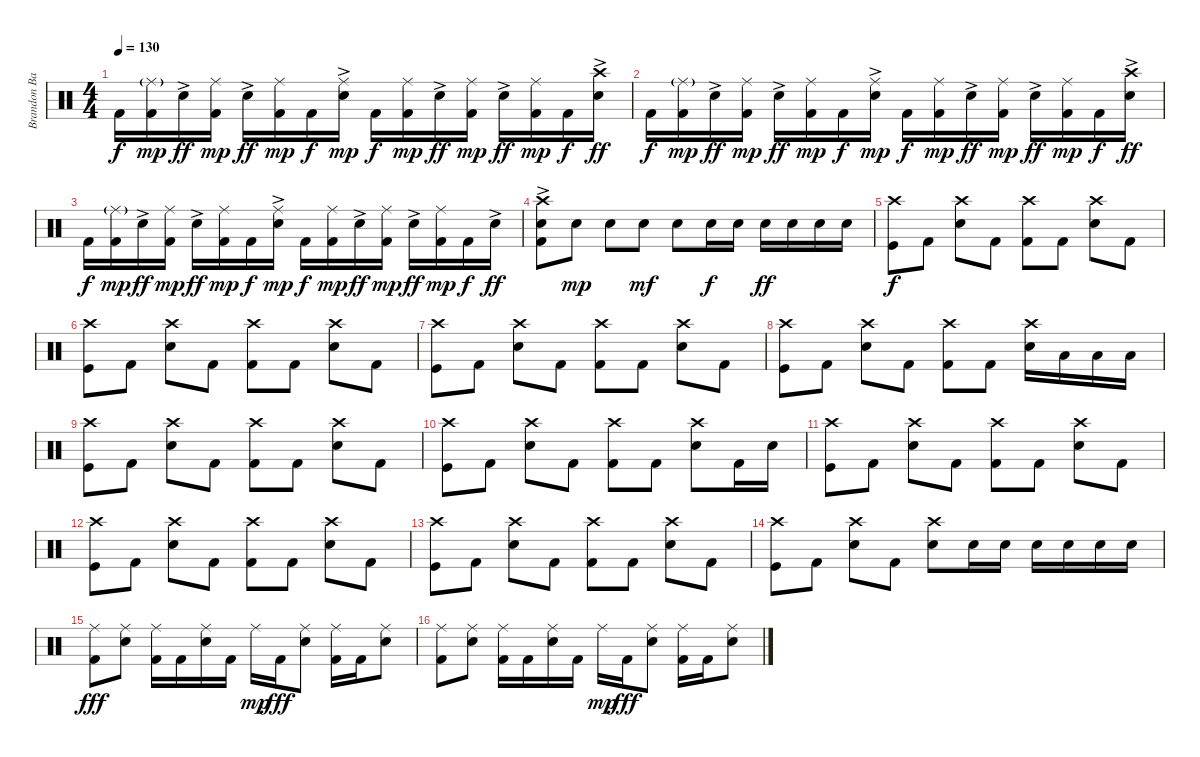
\track ("Brandon Barnes - Drums" "Brandon Ba") {instrument percussion}
\staff {score}
\articulation defaults
\ts (4 4)
\tempo 130
\clef neutral
\ks c "Kick (hit) 2".16{dy f}
("Kick (hit) 2" "Ride (middle)"{g}).16{dy mp} "Snare (hit) 2"{ac}.16{dy ff} ("Kick (hit) 2" "Ride (middle)").16{dy mp} "Snare (hit) 2"{ac}.16{dy ff} ("Kick (hit) 2" "Ride (middle)").16{dy mp} "Kick (hit) 2".16{dy f} ("Snare (hit) 2"{ac} "Ride (middle)").16{dy mp} "Kick (hit) 2".16{dy f} ("Kick (hit) 2" "Ride (middle)").16{dy mp} "Snare (hit) 2"{ac}.16{dy ff} ("Kick (hit) 2" "Ride (middle)").16{dy mp} "Snare (hit) 2"{ac}.16{dy ff} ("Kick (hit) 2" "Ride (middle)").16{dy mp} "Kick (hit) 2".16{dy f} ("Crash high (hit)"{ac} "Snare (hit) 2"{ac}).16{dy ff} |
"Kick (hit) 2".16{dy f} ("Kick (hit) 2" "Ride (middle)"{g}).16{dy mp} "Snare (hit) 2"{ac}.16{dy ff} ("Kick (hit) 2" "Ride (middle)").16{dy mp} "Snare (hit) 2"{ac}.16{dy ff} ("Kick (hit) 2" "Ride (middle)").16{dy mp} "Kick (hit) 2".16{dy f} ("Snare (hit) 2"{ac} "Ride (middle)").16{dy mp} "Kick (hit) 2".16{dy f} ("Kick (hit) 2" "Ride (middle)").16{dy mp} "Snare (hit) 2"{ac}.16{dy ff} ("Kick (hit) 2" "Ride (middle)").16{dy mp} "Snare (hit) 2"{ac}.16{dy ff} ("Kick (hit) 2" "Ride (middle)").16{dy mp} "Kick (hit) 2".16{dy f} ("Crash high (hit)"{ac} "Snare (hit) 2"{ac}).16{dy ff} |
"Kick (hit) 2".16{dy f} ("Kick (hit) 2" "Ride (middle)"{g}).16{dy mp} "Snare (hit) 2"{ac}.16{dy ff} ("Kick (hit) 2" "Ride (middle)").16{dy mp} "Snare (hit) 2"{ac}.16{dy ff} ("Kick (hit) 2" "Ride (middle)").16{dy mp} "Kick (hit) 2".16{dy f} ("Snare (hit) 2"{ac} "Ride (middle)").16{dy mp} "Kick (hit) 2".16{dy f} ("Kick (hit) 2" "Ride (middle)").16{dy mp} "Snare (hit) 2"{ac}.16{dy ff} ("Kick (hit) 2" "Ride (middle)").16{dy mp} "Snare (hit) 2"{ac}.16{dy ff} ("Kick (hit) 2" "Ride (middle)").16{dy mp} "Kick (hit) 2".16{dy f} "Snare (hit) 2"{ac}.16{dy ff} |
("Snare (hit) 2" "Kick (hit) 2" "Crash high (hit)"{ac}).8 "Snare (hit) 2".8{dy mp} "Snare (hit) 2".8 "Snare (hit) 2".8{dy mf} "Snare (hit) 2".8 "Snare (hit) 2".16{dy f} "Snare (hit) 2".16 "Snare (hit) 2".16{dy ff} "Snare (hit) 2".16 "Snare (hit) 2".16 "Snare (hit) 2".16 |
("Crash high (hit)" "Kick (hit)").8{dy f} "Kick (hit) 2".8 ("Snare (hit) 2" "Crash high (hit)").8 "Kick (hit) 2".8 ("Kick (hit) 2" "Crash high (hit)").8 "Kick (hit) 2".8 ("Electric Snare (hit)" "Crash high (hit)").8 "Kick (hit) 2".8 |
("Crash high (hit)" "Kick (hit)").8 "Kick (hit) 2".8 ("Snare (hit) 2" "Crash high (hit)").8 "Kick (hit) 2".8 ("Kick (hit) 2" "Crash high (hit)").8 "Kick (hit) 2".8 ("Electric Snare (hit)" "Crash high (hit)").8 "Kick (hit) 2".8 |
("Crash high (hit)" "Kick (hit)").8 "Kick (hit) 2".8 ("Snare (hit) 2" "Crash high (hit)").8 "Kick (hit) 2".8 ("Kick (hit) 2" "Crash high (hit)").8 "Kick (hit) 2".8 ("Electric Snare (hit)" "Crash high (hit)").8 "Kick (hit) 2".8 |
("Crash high (hit)" "Kick (hit)").8 "Kick (hit) 2".8 ("Snare (hit) 2" "Crash high (hit)").8 "Kick (hit) 2".8 ("Kick (hit) 2" "Crash high (hit)").8 "Kick (hit) 2".8 ("Electric Snare (hit)" "Crash high (hit)").16 "Low Floor Tom (hit)".16 "Low Floor Tom (hit)".16 "Low Floor Tom (hit)".16 |
("Crash high (hit)" "Kick (hit)").8 "Kick (hit) 2".8 ("Snare (hit) 2" "Crash high (hit)").8 "Kick (hit) 2".8 ("Kick (hit) 2" "Crash high (hit)").8 "Kick (hit) 2".8 ("Electric Snare (hit)" "Crash high (hit)").8 "Kick (hit) 2".8 |
("Crash high (hit)" "Kick (hit)").8 "Kick (hit) 2".8 ("Snare (hit) 2" "Crash high (hit)").8 "Kick (hit) 2".8 ("Kick (hit) 2" "Crash high (hit)").8 "Kick (hit) 2".8 ("Electric Snare (hit)" "Crash high (hit)").8 "Kick (hit) 2".16 "Snare (hit) 2".16 |
("Crash high (hit)" "Kick (hit)").8 "Kick (hit) 2".8 ("Snare (hit) 2" "Crash high (hit)").8 "Kick (hit) 2".8 ("Kick (hit) 2" "Crash high (hit)").8 "Kick (hit) 2".8 ("Electric Snare (hit)" "Crash high (hit)").8 "Kick (hit) 2".8 |
("Crash high (hit)" "Kick (hit)").8 "Kick (hit) 2".8 ("Snare (hit) 2" "Crash high (hit)").8 "Kick (hit) 2".8 ("Kick (hit) 2" "Crash high (hit)").8 "Kick (hit) 2".8 ("Electric Snare (hit)" "Crash high (hit)").8 "Kick (hit) 2".8 |
("Crash high (hit)" "Kick (hit)").8 "Kick (hit) 2".8 ("Snare (hit) 2" "Crash high (hit)").8 "Kick (hit) 2".8 ("Kick (hit) 2" "Crash high (hit)").8 "Kick (hit) 2".8 ("Electric Snare (hit)" "Crash high (hit)").8 "Kick (hit) 2".8 |
("Crash high (hit)" "Kick (hit)").8 "Kick (hit) 2".8 ("Snare (hit) 2" "Crash high (hit)").8 "Kick (hit) 2".8 ("Snare (hit) 2" "Crash high (hit)").8 "Snare (hit) 2".16 "Snare (hit) 2".16 "Snare (hit) 2".16 "Snare (hit) 2".16 "Snare (hit) 2".16 "Snare (hit) 2".16 |
("Ride (middle)" "Kick (hit) 2").8{dy fff} ("Ride (middle)" "Snare (hit) 2").8 ("Ride (middle)" "Kick (hit) 2").16 "Kick (hit) 2".16 ("Ride (middle)" "Snare (hit) 2").16 "Kick (hit) 2".16 "Ride (middle)".16{dy mp} "Kick (hit) 2".16{dy fff} ("Ride (middle)" "Snare (hit) 2").8 ("Ride (middle)" "Kick (hit) 2").16 "Kick (hit) 2".16 ("Ride (middle)" "Snare (hit) 2").8 |
("Ride (middle)" "Kick (hit) 2").8 ("Ride (middle)" "Snare (hit) 2").8 ("Ride (middle)" "Kick (hit) 2").16 "Kick (hit) 2".16 ("Ride (middle)" "Snare (hit) 2").16 "Kick (hit) 2".16 "Ride (middle)".16{dy mp} "Kick (hit) 2".16{dy fff} ("Ride (middle)" "Snare (hit) 2").8 ("Ride (middle)" "Kick (hit) 2").16 "Kick (hit) 2".16 ("Ride (middle)" "Snare (hit) 2").8
